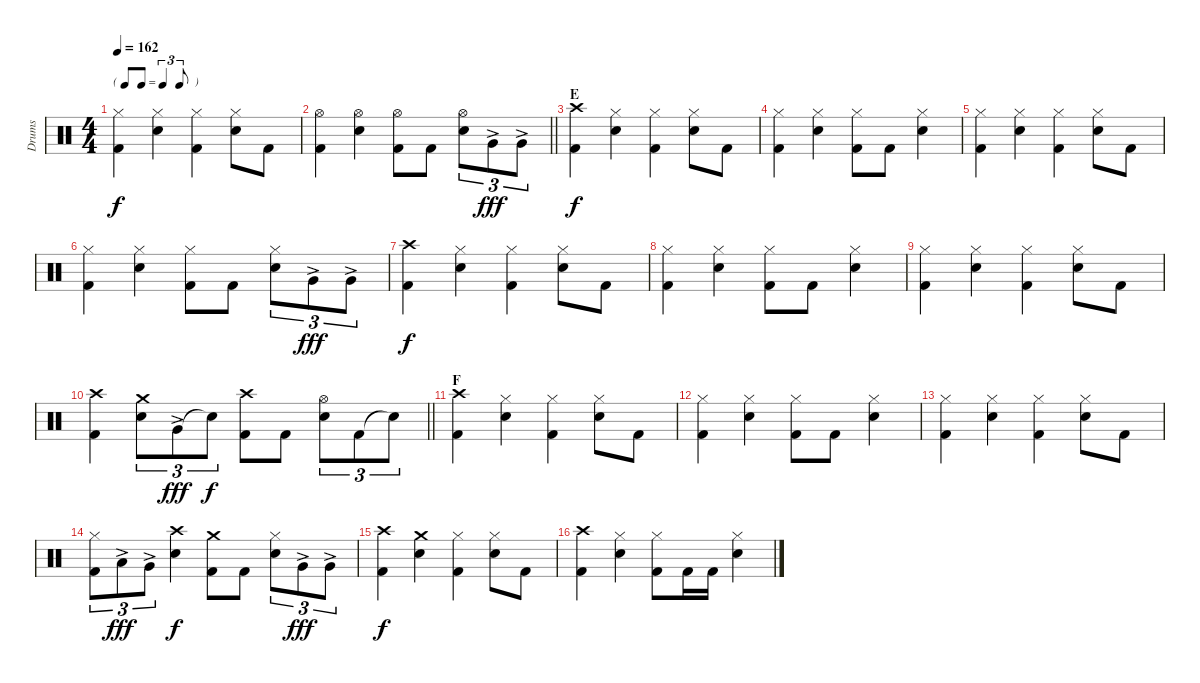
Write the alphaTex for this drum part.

\track ("Drums" "Drums") {instrument percussion}
\staff {score}
\articulation defaults
\ts (4 4)
\tf triplet8th
\tempo 162
\clef neutral
\ks c
("Hi-Hat (closed)" "Kick (hit) 2").4{dy f} ("Hi-Hat (closed)" "Snare (hit) 2").4 ("Hi-Hat (closed)" "Kick (hit) 2").4 ("Hi-Hat (closed)" "Snare (hit) 2").8 "Kick (hit) 2".8 |
\barLineRight lightlight
("Hi-Hat (open)" "Kick (hit) 2").4 ("Hi-Hat (open)" "Snare (hit) 2").4 ("Hi-Hat (open)" "Kick (hit) 2").8 "Kick (hit) 2".8 ("Hi-Hat (open)" "Snare (hit) 2").8{tu (3 2)} "Very Low Tom (hit)"{ac}.8{tu (3 2) dy fff} "Very Low Tom (hit)"{ac}.8{tu (3 2)} |
\section ("" "E")
("Crash high (hit)" "Kick (hit) 2").4{dy f} ("Hi-Hat (closed)" "Snare (hit) 2").4 ("Hi-Hat (closed)" "Kick (hit) 2").4 ("Hi-Hat (closed)" "Snare (hit) 2").8 "Kick (hit) 2".8 |
("Hi-Hat (closed)" "Kick (hit) 2").4 ("Hi-Hat (closed)" "Snare (hit) 2").4 ("Hi-Hat (closed)" "Kick (hit) 2").8 "Kick (hit) 2".8 ("Hi-Hat (closed)" "Snare (hit) 2").4 |
("Hi-Hat (closed)" "Kick (hit) 2").4 ("Hi-Hat (closed)" "Snare (hit) 2").4 ("Hi-Hat (closed)" "Kick (hit) 2").4 ("Hi-Hat (closed)" "Snare (hit) 2").8 "Kick (hit) 2".8 |
("Hi-Hat (closed)" "Kick (hit) 2").4 ("Hi-Hat (closed)" "Snare (hit) 2").4 ("Hi-Hat (closed)" "Kick (hit) 2").8 "Kick (hit) 2".8 ("Hi-Hat (closed)" "Snare (hit) 2").8{tu (3 2)} "Very Low Tom (hit)"{ac}.8{tu (3 2) dy fff} "Very Low Tom (hit)"{ac}.8{tu (3 2)} |
("Crash high (hit)" "Kick (hit) 2").4{dy f} ("Hi-Hat (closed)" "Snare (hit) 2").4 ("Hi-Hat (closed)" "Kick (hit) 2").4 ("Hi-Hat (closed)" "Snare (hit) 2").8 "Kick (hit) 2".8 |
("Hi-Hat (closed)" "Kick (hit) 2").4 ("Hi-Hat (closed)" "Snare (hit) 2").4 ("Hi-Hat (closed)" "Kick (hit) 2").8 "Kick (hit) 2".8 ("Hi-Hat (closed)" "Snare (hit) 2").4 |
("Hi-Hat (closed)" "Kick (hit) 2").4 ("Hi-Hat (closed)" "Snare (hit) 2").4 ("Hi-Hat (closed)" "Kick (hit) 2").4 ("Hi-Hat (closed)" "Snare (hit) 2").8 "Kick (hit) 2".8 |
\barLineRight lightlight
("Crash high (hit)" "Kick (hit) 2").4 ("Crash medium (hit)" "Snare (hit) 2").8{tu (3 2)} "Very Low Tom (hit)"{ac}.8{tu (3 2) dy fff} "Snare (hit)"{t}.8{tu (3 2) dy f} ("Crash high (hit)" "Kick (hit) 2").8 "Kick (hit) 2".8 ("Hi-Hat (open)" "Snare (hit) 2").8{tu (3 2)} "Kick (hit) 2".8{tu (3 2)} "Snare (hit)"{t}.8{tu (3 2)} |
\section ("" "F")
("Crash high (hit)" "Kick (hit) 2").4 ("Hi-Hat (closed)" "Snare (hit) 2").4 ("Hi-Hat (closed)" "Kick (hit) 2").4 ("Hi-Hat (closed)" "Snare (hit) 2").8 "Kick (hit) 2".8 |
("Hi-Hat (closed)" "Kick (hit) 2").4 ("Hi-Hat (closed)" "Snare (hit) 2").4 ("Hi-Hat (closed)" "Kick (hit) 2").8 "Kick (hit) 2".8 ("Hi-Hat (closed)" "Snare (hit) 2").4 |
("Hi-Hat (closed)" "Kick (hit) 2").4 ("Hi-Hat (closed)" "Snare (hit) 2").4 ("Hi-Hat (closed)" "Kick (hit) 2").4 ("Hi-Hat (closed)" "Snare (hit) 2").8 "Kick (hit) 2".8 |
("Hi-Hat (closed)" "Kick (hit) 2").8{tu (3 2)} "Low Tom (hit)"{ac}.8{tu (3 2) dy fff} "Very Low Tom (hit)"{ac}.8{tu (3 2)} ("Crash high (hit)" "Snare (hit) 2").4{dy f} ("Crash medium (hit)" "Kick (hit) 2").8 "Kick (hit) 2".8 ("Hi-Hat (closed)" "Snare (hit) 2").8{tu (3 2)} "Very Low Tom (hit)"{ac}.8{tu (3 2) dy fff} "Very Low Tom (hit)"{ac}.8{tu (3 2)} |
("Crash high (hit)" "Kick (hit) 2").4{dy f} ("Crash medium (hit)" "Snare (hit) 2").4 ("Hi-Hat (closed)" "Kick (hit) 2").4 ("Hi-Hat (closed)" "Snare (hit) 2").8 "Kick (hit) 2".8 |
("Crash high (hit)" "Kick (hit) 2").4 ("Hi-Hat (closed)" "Snare (hit) 2").4 ("Hi-Hat (closed)" "Kick (hit) 2").8 "Kick (hit) 2".16 "Kick (hit) 2".16 ("Hi-Hat (closed)" "Snare (hit) 2").4
